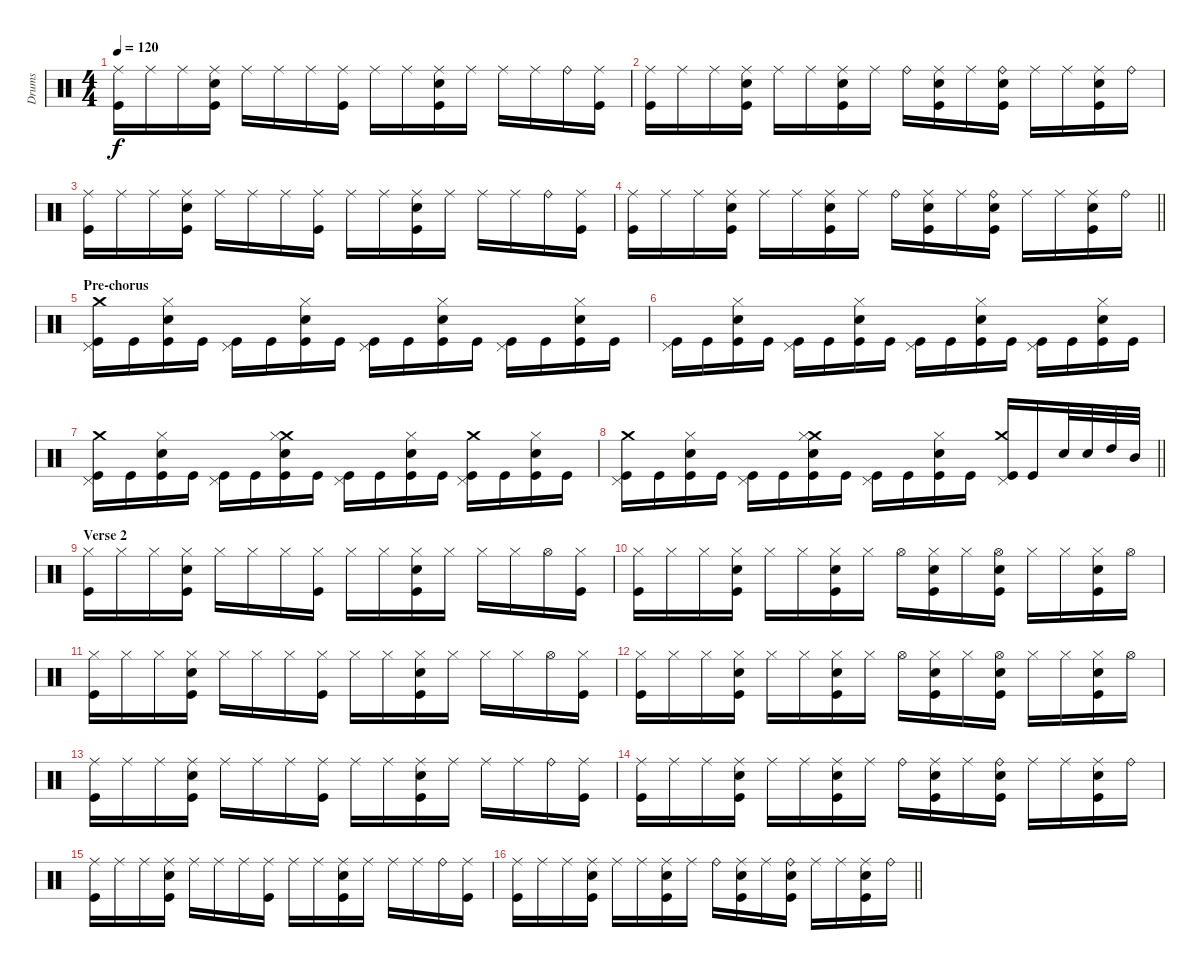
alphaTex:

\track ("Drums" "Drums") {instrument percussion}
\staff {score}
\articulation defaults
\ts (4 4)
\tempo 120
\clef neutral
\ks c
("Ride (middle)" "Kick (hit)").16{dy f} "Ride (middle)".16 "Ride (middle)".16 ("Ride (middle)" "Electric Snare (hit)" "Kick (hit)").16 "Ride (middle)".16 "Ride (middle)".16 "Ride (middle)".16 ("Ride (middle)" "Kick (hit)").16 "Ride (middle)".16 "Ride (middle)".16 ("Ride (middle)" "Electric Snare (hit)" "Kick (hit)").16 "Ride (middle)".16 "Ride (middle)".16 "Ride (middle)".16 "Ride (bell)".16 ("Ride (middle)" "Kick (hit)").16 |
("Ride (middle)" "Kick (hit)").16 "Ride (middle)".16 "Ride (middle)".16 ("Ride (middle)" "Electric Snare (hit)" "Kick (hit)").16 "Ride (middle)".16 "Ride (middle)".16 ("Ride (middle)" "Electric Snare (hit)" "Kick (hit)").16 "Ride (middle)".16 "Ride (bell)".16 ("Ride (middle)" "Electric Snare (hit)" "Kick (hit)").16 "Ride (middle)".16 ("Ride (bell)" "Electric Snare (hit)" "Kick (hit)").16 "Ride (middle)".16 "Ride (middle)".16 ("Ride (middle)" "Electric Snare (hit)" "Kick (hit)").16 "Ride (bell)".16 |
("Ride (middle)" "Kick (hit)").16 "Ride (middle)".16 "Ride (middle)".16 ("Ride (middle)" "Electric Snare (hit)" "Kick (hit)").16 "Ride (middle)".16 "Ride (middle)".16 "Ride (middle)".16 ("Ride (middle)" "Kick (hit)").16 "Ride (middle)".16 "Ride (middle)".16 ("Ride (middle)" "Electric Snare (hit)" "Kick (hit)").16 "Ride (middle)".16 "Ride (middle)".16 "Ride (middle)".16 "Ride (bell)".16 ("Ride (middle)" "Kick (hit)").16 |
\barLineRight lightlight
("Ride (middle)" "Kick (hit)").16 "Ride (middle)".16 "Ride (middle)".16 ("Ride (middle)" "Electric Snare (hit)" "Kick (hit)").16 "Ride (middle)".16 "Ride (middle)".16 ("Ride (middle)" "Electric Snare (hit)" "Kick (hit)").16 "Ride (middle)".16 "Ride (bell)".16 ("Ride (middle)" "Electric Snare (hit)" "Kick (hit)").16 "Ride (middle)".16 ("Ride (bell)" "Electric Snare (hit)" "Kick (hit)").16 "Ride (middle)".16 "Ride (middle)".16 ("Ride (middle)" "Electric Snare (hit)" "Kick (hit)").16 "Ride (bell)".16 |
\section ("" "Pre-chorus")
("Crash medium (hit)" "Pedal Hi-Hat (hit)" "Kick (hit)").16 "Kick (hit)".16 ("Hi-Hat (closed)" "Electric Snare (hit)" "Kick (hit)").16 "Kick (hit)".16 ("Pedal Hi-Hat (hit)" "Kick (hit)").16 "Kick (hit)".16 ("Hi-Hat (closed)" "Electric Snare (hit)" "Kick (hit)").16 "Kick (hit)".16 ("Pedal Hi-Hat (hit)" "Kick (hit)").16 "Kick (hit)".16 ("Hi-Hat (closed)" "Electric Snare (hit)" "Kick (hit)").16 "Kick (hit)".16 ("Pedal Hi-Hat (hit)" "Kick (hit)").16 "Kick (hit)".16 ("Hi-Hat (closed)" "Electric Snare (hit)" "Kick (hit)").16 "Kick (hit)".16 |
("Pedal Hi-Hat (hit)" "Kick (hit)").16 "Kick (hit)".16 ("Hi-Hat (closed)" "Electric Snare (hit)" "Kick (hit)").16 "Kick (hit)".16 ("Pedal Hi-Hat (hit)" "Kick (hit)").16 "Kick (hit)".16 ("Hi-Hat (closed)" "Electric Snare (hit)" "Kick (hit)").16 "Kick (hit)".16 ("Pedal Hi-Hat (hit)" "Kick (hit)").16 "Kick (hit)".16 ("Hi-Hat (closed)" "Electric Snare (hit)" "Kick (hit)").16 "Kick (hit)".16 ("Pedal Hi-Hat (hit)" "Kick (hit)").16 "Kick (hit)".16 ("Hi-Hat (closed)" "Electric Snare (hit)" "Kick (hit)").16 "Kick (hit)".16 |
("Crash medium (hit)" "Pedal Hi-Hat (hit)" "Kick (hit)").16 "Kick (hit)".16 ("Hi-Hat (closed)" "Electric Snare (hit)" "Kick (hit)").16 "Kick (hit)".16 ("Pedal Hi-Hat (hit)" "Kick (hit)").16 "Kick (hit)".16 ("Crash medium (hit)" "Hi-Hat (closed)" "Electric Snare (hit)" "Kick (hit)").16 "Kick (hit)".16 ("Pedal Hi-Hat (hit)" "Kick (hit)").16 "Kick (hit)".16 ("Hi-Hat (closed)" "Electric Snare (hit)" "Kick (hit)").16 "Kick (hit)".16 ("Crash medium (hit)" "Pedal Hi-Hat (hit)" "Kick (hit)").16 "Kick (hit)".16 ("Hi-Hat (closed)" "Electric Snare (hit)" "Kick (hit)").16 "Kick (hit)".16 |
\barLineRight lightlight
("Crash medium (hit)" "Pedal Hi-Hat (hit)" "Kick (hit)").16 "Kick (hit)".16 ("Hi-Hat (closed)" "Electric Snare (hit)" "Kick (hit)").16 "Kick (hit)".16 ("Pedal Hi-Hat (hit)" "Kick (hit)").16 "Kick (hit)".16 ("Crash medium (hit)" "Hi-Hat (closed)" "Electric Snare (hit)" "Kick (hit)").16 "Kick (hit)".16 ("Pedal Hi-Hat (hit)" "Kick (hit)").16 "Kick (hit)".16 ("Hi-Hat (closed)" "Electric Snare (hit)" "Kick (hit)").16 "Kick (hit)".16 ("Crash medium (hit)" "Pedal Hi-Hat (hit)" "Kick (hit)").16 "Kick (hit)".16 "Electric Snare (hit)".32 "Electric Snare (hit)".32 "High Tom (hit)".32 "Mid Tom (hit)".32 |
\section ("" "Verse 2")
("Hi-Hat (closed)" "Kick (hit)").16 "Hi-Hat (closed)".16 "Hi-Hat (closed)".16 ("Hi-Hat (closed)" "Electric Snare (hit)" "Kick (hit)").16 "Hi-Hat (closed)".16 "Hi-Hat (closed)".16 "Hi-Hat (closed)".16 ("Hi-Hat (closed)" "Kick (hit)").16 "Hi-Hat (closed)".16 "Hi-Hat (closed)".16 ("Hi-Hat (closed)" "Electric Snare (hit)" "Kick (hit)").16 "Hi-Hat (closed)".16 "Hi-Hat (closed)".16 "Hi-Hat (closed)".16 "Hi-Hat (open)".16 ("Hi-Hat (closed)" "Kick (hit)").16 |
("Hi-Hat (closed)" "Kick (hit)").16 "Hi-Hat (closed)".16 "Hi-Hat (closed)".16 ("Hi-Hat (closed)" "Electric Snare (hit)" "Kick (hit)").16 "Hi-Hat (closed)".16 "Hi-Hat (closed)".16 ("Hi-Hat (closed)" "Electric Snare (hit)" "Kick (hit)").16 "Hi-Hat (closed)".16 "Hi-Hat (open)".16 ("Hi-Hat (closed)" "Electric Snare (hit)" "Kick (hit)").16 "Hi-Hat (closed)".16 ("Hi-Hat (open)" "Electric Snare (hit)" "Kick (hit)").16 "Hi-Hat (closed)".16 "Hi-Hat (closed)".16 ("Hi-Hat (closed)" "Electric Snare (hit)" "Kick (hit)").16 "Hi-Hat (open)".16 |
("Hi-Hat (closed)" "Kick (hit)").16 "Hi-Hat (closed)".16 "Hi-Hat (closed)".16 ("Hi-Hat (closed)" "Electric Snare (hit)" "Kick (hit)").16 "Hi-Hat (closed)".16 "Hi-Hat (closed)".16 "Hi-Hat (closed)".16 ("Hi-Hat (closed)" "Kick (hit)").16 "Hi-Hat (closed)".16 "Hi-Hat (closed)".16 ("Hi-Hat (closed)" "Electric Snare (hit)" "Kick (hit)").16 "Hi-Hat (closed)".16 "Hi-Hat (closed)".16 "Hi-Hat (closed)".16 "Hi-Hat (open)".16 ("Hi-Hat (closed)" "Kick (hit)").16 |
("Hi-Hat (closed)" "Kick (hit)").16 "Hi-Hat (closed)".16 "Hi-Hat (closed)".16 ("Hi-Hat (closed)" "Electric Snare (hit)" "Kick (hit)").16 "Hi-Hat (closed)".16 "Hi-Hat (closed)".16 ("Hi-Hat (closed)" "Electric Snare (hit)" "Kick (hit)").16 "Hi-Hat (closed)".16 "Hi-Hat (open)".16 ("Hi-Hat (closed)" "Electric Snare (hit)" "Kick (hit)").16 "Hi-Hat (closed)".16 ("Hi-Hat (open)" "Electric Snare (hit)" "Kick (hit)").16 "Hi-Hat (closed)".16 "Hi-Hat (closed)".16 ("Hi-Hat (closed)" "Electric Snare (hit)" "Kick (hit)").16 "Hi-Hat (open)".16 |
("Ride (middle)" "Kick (hit)").16 "Ride (middle)".16 "Ride (middle)".16 ("Ride (middle)" "Electric Snare (hit)" "Kick (hit)").16 "Ride (middle)".16 "Ride (middle)".16 "Ride (middle)".16 ("Ride (middle)" "Kick (hit)").16 "Ride (middle)".16 "Ride (middle)".16 ("Ride (middle)" "Electric Snare (hit)" "Kick (hit)").16 "Ride (middle)".16 "Ride (middle)".16 "Ride (middle)".16 "Ride (bell)".16 ("Ride (middle)" "Kick (hit)").16 |
("Ride (middle)" "Kick (hit)").16 "Ride (middle)".16 "Ride (middle)".16 ("Ride (middle)" "Electric Snare (hit)" "Kick (hit)").16 "Ride (middle)".16 "Ride (middle)".16 ("Ride (middle)" "Electric Snare (hit)" "Kick (hit)").16 "Ride (middle)".16 "Ride (bell)".16 ("Ride (middle)" "Electric Snare (hit)" "Kick (hit)").16 "Ride (middle)".16 ("Ride (bell)" "Electric Snare (hit)" "Kick (hit)").16 "Ride (middle)".16 "Ride (middle)".16 ("Ride (middle)" "Electric Snare (hit)" "Kick (hit)").16 "Ride (bell)".16 |
("Ride (middle)" "Kick (hit)").16 "Ride (middle)".16 "Ride (middle)".16 ("Ride (middle)" "Electric Snare (hit)" "Kick (hit)").16 "Ride (middle)".16 "Ride (middle)".16 "Ride (middle)".16 ("Ride (middle)" "Kick (hit)").16 "Ride (middle)".16 "Ride (middle)".16 ("Ride (middle)" "Electric Snare (hit)" "Kick (hit)").16 "Ride (middle)".16 "Ride (middle)".16 "Ride (middle)".16 "Ride (bell)".16 ("Ride (middle)" "Kick (hit)").16 |
\barLineRight lightlight
("Ride (middle)" "Kick (hit)").16 "Ride (middle)".16 "Ride (middle)".16 ("Ride (middle)" "Electric Snare (hit)" "Kick (hit)").16 "Ride (middle)".16 "Ride (middle)".16 ("Ride (middle)" "Electric Snare (hit)" "Kick (hit)").16 "Ride (middle)".16 "Ride (bell)".16 ("Ride (middle)" "Electric Snare (hit)" "Kick (hit)").16 "Ride (middle)".16 ("Ride (bell)" "Electric Snare (hit)" "Kick (hit)").16 "Ride (middle)".16 "Ride (middle)".16 ("Ride (middle)" "Electric Snare (hit)" "Kick (hit)").16 "Ride (bell)".16
